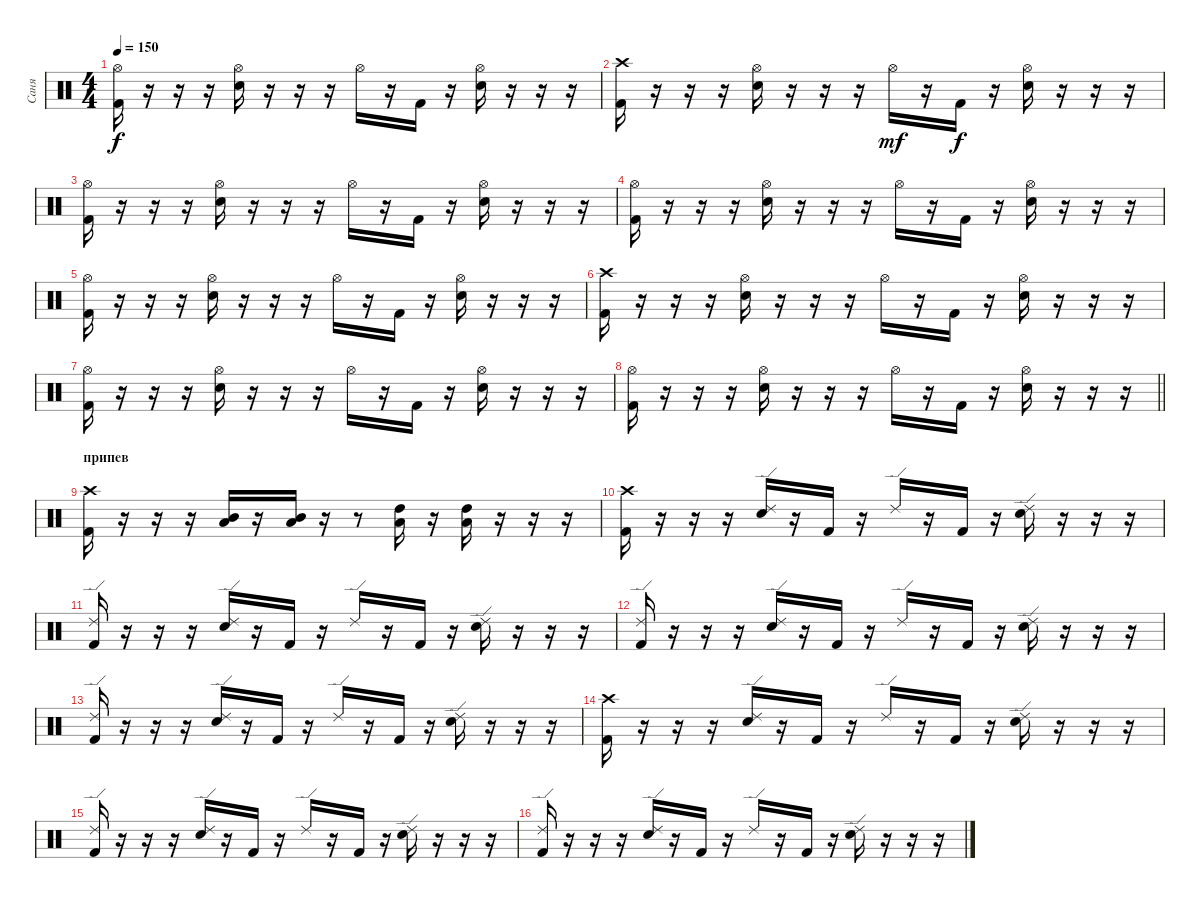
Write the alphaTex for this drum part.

\track ("Саня" "Саня") {instrument percussion}
\staff {score}
\articulation defaults
\ts (4 4)
\tempo 150
\clef neutral
\ks c
("Kick (hit) 2" "Hi-Hat (open)").16{dy f} r.16 r.16 r.16 ("Snare (hit) 2" "Hi-Hat (open)").16 r.16 r.16 r.16 "Hi-Hat (open)".16 r.16 "Kick (hit) 2".16 r.16 ("Snare (hit) 2" "Hi-Hat (open)").16 r.16 r.16 r.16 |
("Kick (hit) 2" "Crash high (hit)").16 r.16 r.16 r.16 ("Snare (hit) 2" "Hi-Hat (open)").16 r.16 r.16 r.16 "Hi-Hat (open)".16{dy mf} r.16 "Kick (hit) 2".16{dy f} r.16 ("Snare (hit) 2" "Hi-Hat (open)").16 r.16 r.16 r.16 |
("Kick (hit) 2" "Hi-Hat (open)").16 r.16 r.16 r.16 ("Snare (hit) 2" "Hi-Hat (open)").16 r.16 r.16 r.16 "Hi-Hat (open)".16 r.16 "Kick (hit) 2".16 r.16 ("Snare (hit) 2" "Hi-Hat (open)").16 r.16 r.16 r.16 |
("Kick (hit) 2" "Hi-Hat (open)").16 r.16 r.16 r.16 ("Snare (hit) 2" "Hi-Hat (open)").16 r.16 r.16 r.16 "Hi-Hat (open)".16 r.16 "Kick (hit) 2".16 r.16 ("Snare (hit) 2" "Hi-Hat (open)").16 r.16 r.16 r.16 |
("Kick (hit) 2" "Hi-Hat (open)").16 r.16 r.16 r.16 ("Snare (hit) 2" "Hi-Hat (open)").16 r.16 r.16 r.16 "Hi-Hat (open)".16 r.16 "Kick (hit) 2".16 r.16 ("Snare (hit) 2" "Hi-Hat (open)").16 r.16 r.16 r.16 |
("Kick (hit) 2" "Crash high (hit)").16 r.16 r.16 r.16 ("Snare (hit) 2" "Hi-Hat (open)").16 r.16 r.16 r.16 "Hi-Hat (open)".16 r.16 "Kick (hit) 2".16 r.16 ("Snare (hit) 2" "Hi-Hat (open)").16 r.16 r.16 r.16 |
("Kick (hit) 2" "Hi-Hat (open)").16 r.16 r.16 r.16 ("Snare (hit) 2" "Hi-Hat (open)").16 r.16 r.16 r.16 "Hi-Hat (open)".16 r.16 "Kick (hit) 2".16 r.16 ("Snare (hit) 2" "Hi-Hat (open)").16 r.16 r.16 r.16 |
\barLineRight lightlight
("Kick (hit) 2" "Hi-Hat (open)").16 r.16 r.16 r.16 ("Snare (hit) 2" "Hi-Hat (open)").16 r.16 r.16 r.16 "Hi-Hat (open)".16 r.16 "Kick (hit) 2".16 r.16 ("Snare (hit) 2" "Hi-Hat (open)").16 r.16 r.16 r.16 |
\section ("" "припев")
("Kick (hit) 2" "Crash high (hit)").16 r.16 r.16 r.16 ("Mid Tom (hit)" "Low Floor Tom (hit)").16 r.16 ("Mid Tom (hit)" "Low Floor Tom (hit)").16 r.16 r.8 ("High Tom (hit)" "Low Floor Tom (hit)").16 r.16 ("High Tom (hit)" "Low Floor Tom (hit)").16 r.16 r.16 r.16 |
("Kick (hit) 2" "Crash high (hit)").16 r.16 r.16 r.16 ("Snare (hit) 2" "Ride (edge) 2").16 r.16 "Kick (hit) 2".16 r.16 "Ride (edge) 2".16 r.16 "Kick (hit) 2".16 r.16 ("Snare (hit) 2" "Ride (edge) 2").16 r.16 r.16 r.16 |
("Kick (hit) 2" "Ride (edge) 2").16 r.16 r.16 r.16 ("Snare (hit) 2" "Ride (edge) 2").16 r.16 "Kick (hit) 2".16 r.16 "Ride (edge) 2".16 r.16 "Kick (hit) 2".16 r.16 ("Snare (hit) 2" "Ride (edge) 2").16 r.16 r.16 r.16 |
("Kick (hit) 2" "Ride (edge) 2").16 r.16 r.16 r.16 ("Snare (hit) 2" "Ride (edge) 2").16 r.16 "Kick (hit) 2".16 r.16 "Ride (edge) 2".16 r.16 "Kick (hit) 2".16 r.16 ("Snare (hit) 2" "Ride (edge) 2").16 r.16 r.16 r.16 |
("Kick (hit) 2" "Ride (edge) 2").16 r.16 r.16 r.16 ("Snare (hit) 2" "Ride (edge) 2").16 r.16 "Kick (hit) 2".16 r.16 "Ride (edge) 2".16 r.16 "Kick (hit) 2".16 r.16 ("Snare (hit) 2" "Ride (edge) 2").16 r.16 r.16 r.16 |
("Kick (hit) 2" "Crash high (hit)").16 r.16 r.16 r.16 ("Snare (hit) 2" "Ride (edge) 2").16 r.16 "Kick (hit) 2".16 r.16 "Ride (edge) 2".16 r.16 "Kick (hit) 2".16 r.16 ("Snare (hit) 2" "Ride (edge) 2").16 r.16 r.16 r.16 |
("Kick (hit) 2" "Ride (edge) 2").16 r.16 r.16 r.16 ("Snare (hit) 2" "Ride (edge) 2").16 r.16 "Kick (hit) 2".16 r.16 "Ride (edge) 2".16 r.16 "Kick (hit) 2".16 r.16 ("Snare (hit) 2" "Ride (edge) 2").16 r.16 r.16 r.16 |
("Kick (hit) 2" "Ride (edge) 2").16 r.16 r.16 r.16 ("Snare (hit) 2" "Ride (edge) 2").16 r.16 "Kick (hit) 2".16 r.16 "Ride (edge) 2".16 r.16 "Kick (hit) 2".16 r.16 ("Snare (hit) 2" "Ride (edge) 2").16 r.16 r.16 r.16
